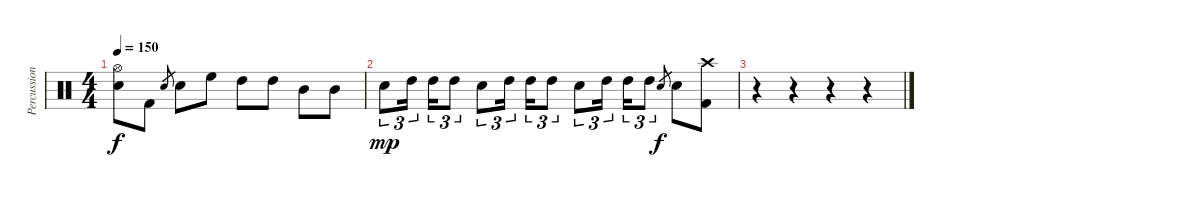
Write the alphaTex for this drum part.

\track ("Percussion" "Percussion") {instrument percussion}
\staff {score}
\articulation defaults
\ts (4 4)
\tempo 150
\clef neutral
\ks c
("Hi-Hat (open)"{t} "Snare (hit)"{t}).8{dy f} "Kick (hit) 2".8 "Snare (hit) 2".8{gr} "Snare (hit) 2".8 "High Floor Tom (hit)".8 "High Tom (hit)".8 "High Tom (hit)".8 "Mid Tom (hit)".8 "Mid Tom (hit)".8 |
"Snare (hit) 2".8{tu (3 2) dy mp} "High Tom (hit)".16{tu (3 2) beam splitsecondary} "High Tom (hit)".16{tu (3 2)} "High Tom (hit)".8{tu (3 2)} "Snare (hit) 2".8{tu (3 2)} "High Tom (hit)".16{tu (3 2) beam splitsecondary} "High Tom (hit)".16{tu (3 2)} "High Tom (hit)".8{tu (3 2)} "Snare (hit) 2".8{tu (3 2)} "High Tom (hit)".16{tu (3 2) beam splitsecondary} "High Tom (hit)".16{tu (3 2)} "High Tom (hit)".8{tu (3 2)} "Snare (hit) 2".8{gr dy f} "Snare (hit) 2".8 ("Crash high (hit)" "Kick (hit) 2").8 |
r.4 r.4 r.4 r.4
